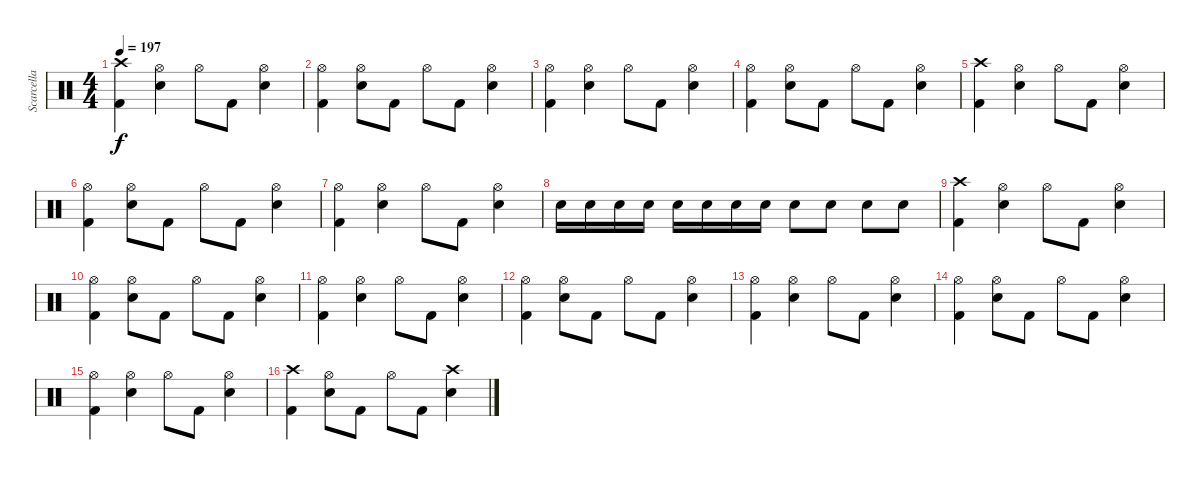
\track ("Scarcella" "Scarcella") {instrument percussion}
\staff {score}
\articulation defaults
\ts (4 4)
\tempo 197
\clef neutral
\ks c
("Crash high (hit)" "Kick (hit) 2").4{dy f} ("Hi-Hat (open)" "Electric Snare (hit)").4 "Hi-Hat (open)".8 "Kick (hit) 2".8 ("Hi-Hat (open)" "Electric Snare (hit)").4 |
("Hi-Hat (open)" "Kick (hit) 2").4 ("Hi-Hat (open)" "Electric Snare (hit)").8 "Kick (hit) 2".8 "Hi-Hat (open)".8 "Kick (hit) 2".8 ("Hi-Hat (open)" "Electric Snare (hit)").4 |
("Hi-Hat (open)" "Kick (hit) 2").4 ("Hi-Hat (open)" "Electric Snare (hit)").4 "Hi-Hat (open)".8 "Kick (hit) 2".8 ("Hi-Hat (open)" "Electric Snare (hit)").4 |
("Hi-Hat (open)" "Kick (hit) 2").4 ("Hi-Hat (open)" "Electric Snare (hit)").8 "Kick (hit) 2".8 "Hi-Hat (open)".8 "Kick (hit) 2".8 ("Hi-Hat (open)" "Electric Snare (hit)").4 |
("Crash high (hit)" "Kick (hit) 2").4 ("Hi-Hat (open)" "Electric Snare (hit)").4 "Hi-Hat (open)".8 "Kick (hit) 2".8 ("Hi-Hat (open)" "Electric Snare (hit)").4 |
("Hi-Hat (open)" "Kick (hit) 2").4 ("Hi-Hat (open)" "Electric Snare (hit)").8 "Kick (hit) 2".8 "Hi-Hat (open)".8 "Kick (hit) 2".8 ("Hi-Hat (open)" "Electric Snare (hit)").4 |
("Hi-Hat (open)" "Kick (hit) 2").4 ("Hi-Hat (open)" "Electric Snare (hit)").4 "Hi-Hat (open)".8 "Kick (hit) 2".8 ("Hi-Hat (open)" "Electric Snare (hit)").4 |
"Electric Snare (hit)".16 "Electric Snare (hit)".16 "Electric Snare (hit)".16 "Electric Snare (hit)".16 "Electric Snare (hit)".16 "Electric Snare (hit)".16 "Electric Snare (hit)".16 "Electric Snare (hit)".16 "Electric Snare (hit)".8 "Electric Snare (hit)".8 "Electric Snare (hit)".8 "Electric Snare (hit)".8 |
("Crash high (hit)" "Kick (hit) 2").4 ("Hi-Hat (open)" "Electric Snare (hit)").4 "Hi-Hat (open)".8 "Kick (hit) 2".8 ("Hi-Hat (open)" "Electric Snare (hit)").4 |
("Hi-Hat (open)" "Kick (hit) 2").4 ("Hi-Hat (open)" "Electric Snare (hit)").8 "Kick (hit) 2".8 "Hi-Hat (open)".8 "Kick (hit) 2".8 ("Hi-Hat (open)" "Electric Snare (hit)").4 |
("Hi-Hat (open)" "Kick (hit) 2").4 ("Hi-Hat (open)" "Electric Snare (hit)").4 "Hi-Hat (open)".8 "Kick (hit) 2".8 ("Hi-Hat (open)" "Electric Snare (hit)").4 |
("Hi-Hat (open)" "Kick (hit) 2").4 ("Hi-Hat (open)" "Electric Snare (hit)").8 "Kick (hit) 2".8 "Hi-Hat (open)".8 "Kick (hit) 2".8 ("Hi-Hat (open)" "Electric Snare (hit)").4 |
("Hi-Hat (open)" "Kick (hit) 2").4 ("Hi-Hat (open)" "Electric Snare (hit)").4 "Hi-Hat (open)".8 "Kick (hit) 2".8 ("Hi-Hat (open)" "Electric Snare (hit)").4 |
("Hi-Hat (open)" "Kick (hit) 2").4 ("Hi-Hat (open)" "Electric Snare (hit)").8 "Kick (hit) 2".8 "Hi-Hat (open)".8 "Kick (hit) 2".8 ("Hi-Hat (open)" "Electric Snare (hit)").4 |
("Hi-Hat (open)" "Kick (hit) 2").4 ("Hi-Hat (open)" "Electric Snare (hit)").4 "Hi-Hat (open)".8 "Kick (hit) 2".8 ("Hi-Hat (open)" "Electric Snare (hit)").4 |
("Crash high (hit)" "Kick (hit) 2").4 ("Hi-Hat (open)" "Electric Snare (hit)").8 "Kick (hit) 2".8 "Hi-Hat (open)".8 "Kick (hit) 2".8 ("Crash high (hit)" "Electric Snare (hit)").4
